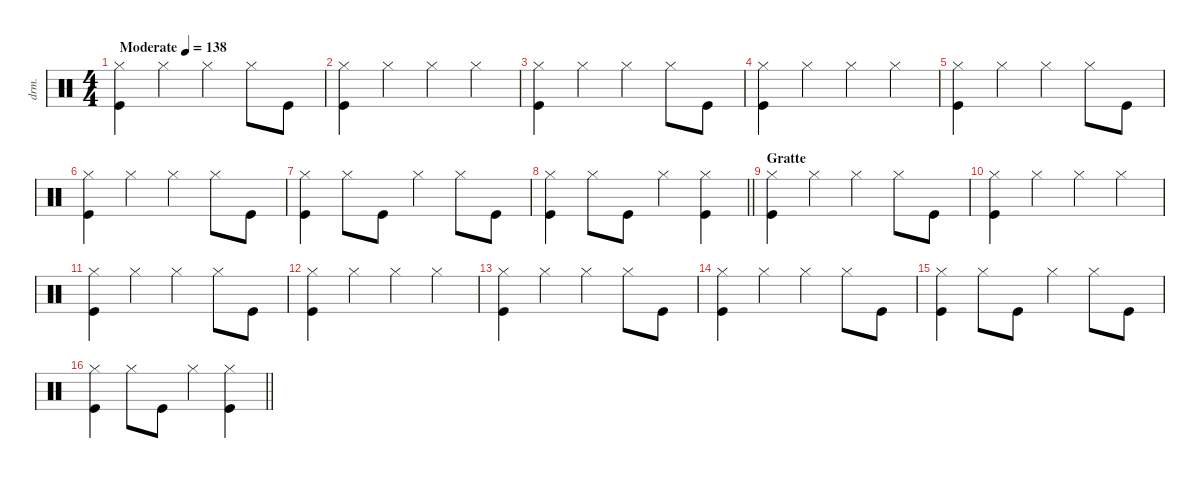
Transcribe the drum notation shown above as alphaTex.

\defaultSystemsLayout 4
\hideDynamics
\bracketExtendMode nobrackets
\track ("Percussions" "drm.") {instrument percussion}
\staff {score}
\articulation defaults
\ts (4 4)
\beaming (8 2 2 2 2)
\tempo (138 "Moderate")
\clef neutral
\ks aminor
("Hi-Hat (closed)" "Kick (hit)").4{dy f} "Hi-Hat (closed)".4 "Hi-Hat (closed)".4 "Hi-Hat (closed)".8 "Kick (hit)".8 |
("Hi-Hat (closed)" "Kick (hit)").4 "Hi-Hat (closed)".4 "Hi-Hat (closed)".4 "Hi-Hat (closed)".4 |
("Hi-Hat (closed)" "Kick (hit)").4 "Hi-Hat (closed)".4 "Hi-Hat (closed)".4 "Hi-Hat (closed)".8 "Kick (hit)".8 |
("Hi-Hat (closed)" "Kick (hit)").4 "Hi-Hat (closed)".4 "Hi-Hat (closed)".4 "Hi-Hat (closed)".4 |
("Hi-Hat (closed)" "Kick (hit)").4 "Hi-Hat (closed)".4 "Hi-Hat (closed)".4 "Hi-Hat (closed)".8 "Kick (hit)".8 |
("Hi-Hat (closed)" "Kick (hit)").4 "Hi-Hat (closed)".4 "Hi-Hat (closed)".4 "Hi-Hat (closed)".8 "Kick (hit)".8 |
("Hi-Hat (closed)" "Kick (hit)").4 "Hi-Hat (closed)".8 "Kick (hit)".8 "Hi-Hat (closed)".4 "Hi-Hat (closed)".8 "Kick (hit)".8 |
\barLineRight lightlight
("Hi-Hat (closed)" "Kick (hit)").4 "Hi-Hat (closed)".8 "Kick (hit)".8 "Hi-Hat (closed)".4 ("Hi-Hat (closed)" "Kick (hit)").4 |
\section ("" "Gratte")
("Hi-Hat (closed)" "Kick (hit)").4 "Hi-Hat (closed)".4 "Hi-Hat (closed)".4 "Hi-Hat (closed)".8 "Kick (hit)".8 |
("Hi-Hat (closed)" "Kick (hit)").4 "Hi-Hat (closed)".4 "Hi-Hat (closed)".4 "Hi-Hat (closed)".4 |
("Hi-Hat (closed)" "Kick (hit)").4 "Hi-Hat (closed)".4 "Hi-Hat (closed)".4 "Hi-Hat (closed)".8 "Kick (hit)".8 |
("Hi-Hat (closed)" "Kick (hit)").4 "Hi-Hat (closed)".4 "Hi-Hat (closed)".4 "Hi-Hat (closed)".4 |
("Hi-Hat (closed)" "Kick (hit)").4 "Hi-Hat (closed)".4 "Hi-Hat (closed)".4 "Hi-Hat (closed)".8 "Kick (hit)".8 |
("Hi-Hat (closed)" "Kick (hit)").4 "Hi-Hat (closed)".4 "Hi-Hat (closed)".4 "Hi-Hat (closed)".8 "Kick (hit)".8 |
("Hi-Hat (closed)" "Kick (hit)").4 "Hi-Hat (closed)".8 "Kick (hit)".8 "Hi-Hat (closed)".4 "Hi-Hat (closed)".8 "Kick (hit)".8 |
\barLineRight lightlight
("Hi-Hat (closed)" "Kick (hit)").4 "Hi-Hat (closed)".8 "Kick (hit)".8 "Hi-Hat (closed)".4 ("Hi-Hat (closed)" "Kick (hit)").4
